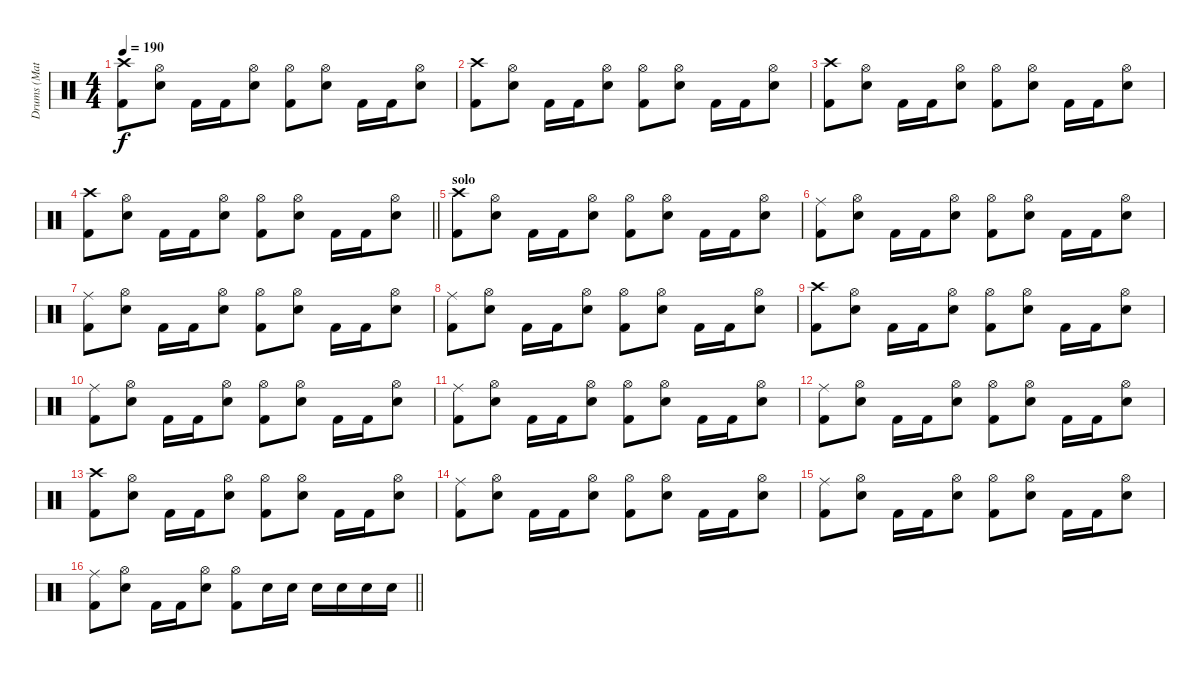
\track ("Drums (Matt/Chris)" "Drums (Mat") {instrument percussion}
\staff {score}
\articulation defaults
\ts (4 4)
\tempo 190
\clef neutral
\ks c
("Crash high (hit)" "Kick (hit) 2").8{dy f} ("Hi-Hat (open)" "Snare (hit) 2").8 "Kick (hit) 2".16 "Kick (hit) 2".16 ("Hi-Hat (open)" "Snare (hit) 2").8 ("Hi-Hat (open)" "Kick (hit) 2").8 ("Hi-Hat (open)" "Snare (hit) 2").8 "Kick (hit) 2".16 "Kick (hit) 2".16 ("Hi-Hat (open)" "Snare (hit) 2").8 |
("Crash high (hit)" "Kick (hit) 2").8 ("Hi-Hat (open)" "Snare (hit) 2").8 "Kick (hit) 2".16 "Kick (hit) 2".16 ("Hi-Hat (open)" "Snare (hit) 2").8 ("Hi-Hat (open)" "Kick (hit) 2").8 ("Hi-Hat (open)" "Snare (hit) 2").8 "Kick (hit) 2".16 "Kick (hit) 2".16 ("Hi-Hat (open)" "Snare (hit) 2").8 |
("Crash high (hit)" "Kick (hit) 2").8 ("Hi-Hat (open)" "Snare (hit) 2").8 "Kick (hit) 2".16 "Kick (hit) 2".16 ("Hi-Hat (open)" "Snare (hit) 2").8 ("Hi-Hat (open)" "Kick (hit) 2").8 ("Hi-Hat (open)" "Snare (hit) 2").8 "Kick (hit) 2".16 "Kick (hit) 2".16 ("Hi-Hat (open)" "Snare (hit) 2").8 |
\barLineRight lightlight
("Crash high (hit)" "Kick (hit) 2").8 ("Hi-Hat (open)" "Snare (hit) 2").8 "Kick (hit) 2".16 "Kick (hit) 2".16 ("Hi-Hat (open)" "Snare (hit) 2").8 ("Hi-Hat (open)" "Kick (hit) 2").8 ("Hi-Hat (open)" "Snare (hit) 2").8 "Kick (hit) 2".16 "Kick (hit) 2".16 ("Hi-Hat (open)" "Snare (hit) 2").8 |
\section ("" "solo")
("Crash high (hit)" "Kick (hit) 2").8 ("Hi-Hat (open)" "Snare (hit) 2").8 "Kick (hit) 2".16 "Kick (hit) 2".16 ("Hi-Hat (open)" "Snare (hit) 2").8 ("Hi-Hat (open)" "Kick (hit) 2").8 ("Hi-Hat (open)" "Snare (hit) 2").8 "Kick (hit) 2".16 "Kick (hit) 2".16 ("Hi-Hat (open)" "Snare (hit) 2").8 |
("Ride (middle)" "Kick (hit) 2").8 ("Hi-Hat (open)" "Snare (hit) 2").8 "Kick (hit) 2".16 "Kick (hit) 2".16 ("Hi-Hat (open)" "Snare (hit) 2").8 ("Hi-Hat (open)" "Kick (hit) 2").8 ("Hi-Hat (open)" "Snare (hit) 2").8 "Kick (hit) 2".16 "Kick (hit) 2".16 ("Hi-Hat (open)" "Snare (hit) 2").8 |
("Ride (middle)" "Kick (hit) 2").8 ("Hi-Hat (open)" "Snare (hit) 2").8 "Kick (hit) 2".16 "Kick (hit) 2".16 ("Hi-Hat (open)" "Snare (hit) 2").8 ("Hi-Hat (open)" "Kick (hit) 2").8 ("Hi-Hat (open)" "Snare (hit) 2").8 "Kick (hit) 2".16 "Kick (hit) 2".16 ("Hi-Hat (open)" "Snare (hit) 2").8 |
("Ride (middle)" "Kick (hit) 2").8 ("Hi-Hat (open)" "Snare (hit) 2").8 "Kick (hit) 2".16 "Kick (hit) 2".16 ("Hi-Hat (open)" "Snare (hit) 2").8 ("Hi-Hat (open)" "Kick (hit) 2").8 ("Hi-Hat (open)" "Snare (hit) 2").8 "Kick (hit) 2".16 "Kick (hit) 2".16 ("Hi-Hat (open)" "Snare (hit) 2").8 |
("Crash high (hit)" "Kick (hit) 2").8 ("Hi-Hat (open)" "Snare (hit) 2").8 "Kick (hit) 2".16 "Kick (hit) 2".16 ("Hi-Hat (open)" "Snare (hit) 2").8 ("Hi-Hat (open)" "Kick (hit) 2").8 ("Hi-Hat (open)" "Snare (hit) 2").8 "Kick (hit) 2".16 "Kick (hit) 2".16 ("Hi-Hat (open)" "Snare (hit) 2").8 |
("Ride (middle)" "Kick (hit) 2").8 ("Hi-Hat (open)" "Snare (hit) 2").8 "Kick (hit) 2".16 "Kick (hit) 2".16 ("Hi-Hat (open)" "Snare (hit) 2").8 ("Hi-Hat (open)" "Kick (hit) 2").8 ("Hi-Hat (open)" "Snare (hit) 2").8 "Kick (hit) 2".16 "Kick (hit) 2".16 ("Hi-Hat (open)" "Snare (hit) 2").8 |
("Ride (middle)" "Kick (hit) 2").8 ("Hi-Hat (open)" "Snare (hit) 2").8 "Kick (hit) 2".16 "Kick (hit) 2".16 ("Hi-Hat (open)" "Snare (hit) 2").8 ("Hi-Hat (open)" "Kick (hit) 2").8 ("Hi-Hat (open)" "Snare (hit) 2").8 "Kick (hit) 2".16 "Kick (hit) 2".16 ("Hi-Hat (open)" "Snare (hit) 2").8 |
("Ride (middle)" "Kick (hit) 2").8 ("Hi-Hat (open)" "Snare (hit) 2").8 "Kick (hit) 2".16 "Kick (hit) 2".16 ("Hi-Hat (open)" "Snare (hit) 2").8 ("Hi-Hat (open)" "Kick (hit) 2").8 ("Hi-Hat (open)" "Snare (hit) 2").8 "Kick (hit) 2".16 "Kick (hit) 2".16 ("Hi-Hat (open)" "Snare (hit) 2").8 |
("Crash high (hit)" "Kick (hit) 2").8 ("Hi-Hat (open)" "Snare (hit) 2").8 "Kick (hit) 2".16 "Kick (hit) 2".16 ("Hi-Hat (open)" "Snare (hit) 2").8 ("Hi-Hat (open)" "Kick (hit) 2").8 ("Hi-Hat (open)" "Snare (hit) 2").8 "Kick (hit) 2".16 "Kick (hit) 2".16 ("Hi-Hat (open)" "Snare (hit) 2").8 |
("Ride (middle)" "Kick (hit) 2").8 ("Hi-Hat (open)" "Snare (hit) 2").8 "Kick (hit) 2".16 "Kick (hit) 2".16 ("Hi-Hat (open)" "Snare (hit) 2").8 ("Hi-Hat (open)" "Kick (hit) 2").8 ("Hi-Hat (open)" "Snare (hit) 2").8 "Kick (hit) 2".16 "Kick (hit) 2".16 ("Hi-Hat (open)" "Snare (hit) 2").8 |
("Ride (middle)" "Kick (hit) 2").8 ("Hi-Hat (open)" "Snare (hit) 2").8 "Kick (hit) 2".16 "Kick (hit) 2".16 ("Hi-Hat (open)" "Snare (hit) 2").8 ("Hi-Hat (open)" "Kick (hit) 2").8 ("Hi-Hat (open)" "Snare (hit) 2").8 "Kick (hit) 2".16 "Kick (hit) 2".16 ("Hi-Hat (open)" "Snare (hit) 2").8 |
\barLineRight lightlight
("Ride (middle)" "Kick (hit) 2").8 ("Hi-Hat (open)" "Snare (hit) 2").8 "Kick (hit) 2".16 "Kick (hit) 2".16 ("Hi-Hat (open)" "Snare (hit) 2").8 ("Hi-Hat (open)" "Kick (hit) 2").8 "Snare (hit) 2".16 "Snare (hit) 2".16 "Snare (hit) 2".16 "Snare (hit) 2".16 "Snare (hit) 2".16 "Snare (hit) 2".16
